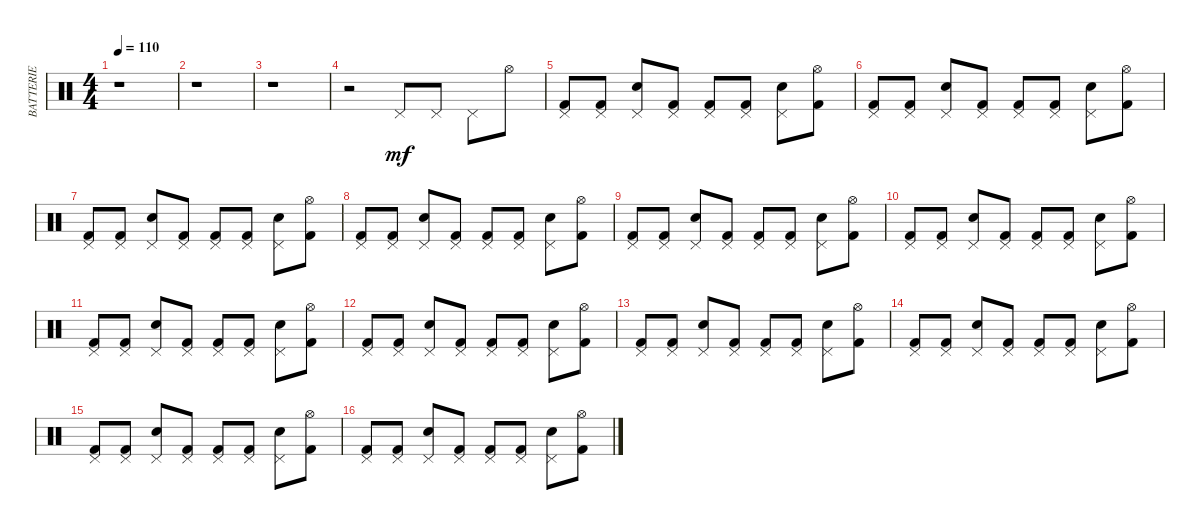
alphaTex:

\track ("BATTERIE" "BATTERIE") {instrument percussion}
\staff {score}
\articulation defaults
\ts (4 4)
\tempo 110
\clef neutral
\ks c
r.1{dy mf} |
r.1 |
r.1 |
r.2 "Pedal Hi-Hat (hit)".8 "Pedal Hi-Hat (hit)".8 "Pedal Hi-Hat (hit)".8 "Hi-Hat (open)".8 |
("Pedal Hi-Hat (hit)" "Kick (hit) 2").8 ("Pedal Hi-Hat (hit)" "Kick (hit) 2").8 ("Electric Snare (hit)" "Pedal Hi-Hat (hit)").8 ("Kick (hit) 2" "Pedal Hi-Hat (hit)").8 ("Pedal Hi-Hat (hit)" "Kick (hit) 2").8 ("Kick (hit) 2" "Pedal Hi-Hat (hit)").8 ("Electric Snare (hit)" "Pedal Hi-Hat (hit)").8 ("Kick (hit) 2" "Hi-Hat (open)").8 |
("Kick (hit) 2" "Pedal Hi-Hat (hit)").8 ("Kick (hit) 2" "Pedal Hi-Hat (hit)").8 ("Pedal Hi-Hat (hit)" "Electric Snare (hit)").8 ("Pedal Hi-Hat (hit)" "Kick (hit) 2").8 ("Kick (hit) 2" "Pedal Hi-Hat (hit)").8 ("Kick (hit) 2" "Pedal Hi-Hat (hit)").8 ("Pedal Hi-Hat (hit)" "Electric Snare (hit)").8 ("Kick (hit) 2" "Hi-Hat (open)").8 |
("Kick (hit) 2" "Pedal Hi-Hat (hit)").8 ("Kick (hit) 2" "Pedal Hi-Hat (hit)").8 ("Pedal Hi-Hat (hit)" "Electric Snare (hit)").8 ("Pedal Hi-Hat (hit)" "Kick (hit) 2").8 ("Kick (hit) 2" "Pedal Hi-Hat (hit)").8 ("Pedal Hi-Hat (hit)" "Kick (hit) 2").8 ("Pedal Hi-Hat (hit)" "Electric Snare (hit)").8 ("Hi-Hat (open)" "Kick (hit) 2").8 |
("Pedal Hi-Hat (hit)" "Kick (hit) 2").8 ("Pedal Hi-Hat (hit)" "Kick (hit) 2").8 ("Electric Snare (hit)" "Pedal Hi-Hat (hit)").8 ("Kick (hit) 2" "Pedal Hi-Hat (hit)").8 ("Pedal Hi-Hat (hit)" "Kick (hit) 2").8 ("Kick (hit) 2" "Pedal Hi-Hat (hit)").8 ("Electric Snare (hit)" "Pedal Hi-Hat (hit)").8 ("Kick (hit) 2" "Hi-Hat (open)").8 |
("Kick (hit) 2" "Pedal Hi-Hat (hit)").8 ("Kick (hit) 2" "Pedal Hi-Hat (hit)").8 ("Pedal Hi-Hat (hit)" "Electric Snare (hit)").8 ("Pedal Hi-Hat (hit)" "Kick (hit) 2").8 ("Kick (hit) 2" "Pedal Hi-Hat (hit)").8 ("Pedal Hi-Hat (hit)" "Kick (hit) 2").8 ("Pedal Hi-Hat (hit)" "Electric Snare (hit)").8 ("Hi-Hat (open)" "Kick (hit) 2").8 |
("Kick (hit) 2" "Pedal Hi-Hat (hit)").8 ("Kick (hit) 2" "Pedal Hi-Hat (hit)").8 ("Pedal Hi-Hat (hit)" "Electric Snare (hit)").8 ("Pedal Hi-Hat (hit)" "Kick (hit) 2").8 ("Kick (hit) 2" "Pedal Hi-Hat (hit)").8 ("Pedal Hi-Hat (hit)" "Kick (hit) 2").8 ("Pedal Hi-Hat (hit)" "Electric Snare (hit)").8 ("Hi-Hat (open)" "Kick (hit) 2").8 |
("Pedal Hi-Hat (hit)" "Kick (hit) 2").8 ("Pedal Hi-Hat (hit)" "Kick (hit) 2").8 ("Electric Snare (hit)" "Pedal Hi-Hat (hit)").8 ("Kick (hit) 2" "Pedal Hi-Hat (hit)").8 ("Pedal Hi-Hat (hit)" "Kick (hit) 2").8 ("Kick (hit) 2" "Pedal Hi-Hat (hit)").8 ("Electric Snare (hit)" "Pedal Hi-Hat (hit)").8 ("Kick (hit) 2" "Hi-Hat (open)").8 |
("Pedal Hi-Hat (hit)" "Kick (hit) 2").8 ("Pedal Hi-Hat (hit)" "Kick (hit) 2").8 ("Electric Snare (hit)" "Pedal Hi-Hat (hit)").8 ("Kick (hit) 2" "Pedal Hi-Hat (hit)").8 ("Pedal Hi-Hat (hit)" "Kick (hit) 2").8 ("Kick (hit) 2" "Pedal Hi-Hat (hit)").8 ("Electric Snare (hit)" "Pedal Hi-Hat (hit)").8 ("Kick (hit) 2" "Hi-Hat (open)").8 |
("Pedal Hi-Hat (hit)" "Kick (hit) 2").8 ("Pedal Hi-Hat (hit)" "Kick (hit) 2").8 ("Electric Snare (hit)" "Pedal Hi-Hat (hit)").8 ("Kick (hit) 2" "Pedal Hi-Hat (hit)").8 ("Pedal Hi-Hat (hit)" "Kick (hit) 2").8 ("Kick (hit) 2" "Pedal Hi-Hat (hit)").8 ("Pedal Hi-Hat (hit)" "Electric Snare (hit)").8 ("Hi-Hat (open)" "Kick (hit) 2").8 |
("Pedal Hi-Hat (hit)" "Kick (hit) 2").8 ("Pedal Hi-Hat (hit)" "Kick (hit) 2").8 ("Electric Snare (hit)" "Pedal Hi-Hat (hit)").8 ("Kick (hit) 2" "Pedal Hi-Hat (hit)").8 ("Kick (hit) 2" "Pedal Hi-Hat (hit)").8 ("Kick (hit) 2" "Pedal Hi-Hat (hit)").8 ("Electric Snare (hit)" "Pedal Hi-Hat (hit)").8 ("Kick (hit) 2" "Hi-Hat (open)").8 |
("Pedal Hi-Hat (hit)" "Kick (hit) 2").8 ("Pedal Hi-Hat (hit)" "Kick (hit) 2").8 ("Electric Snare (hit)" "Pedal Hi-Hat (hit)").8 ("Kick (hit) 2" "Pedal Hi-Hat (hit)").8 ("Pedal Hi-Hat (hit)" "Kick (hit) 2").8 ("Kick (hit) 2" "Pedal Hi-Hat (hit)").8 ("Electric Snare (hit)" "Pedal Hi-Hat (hit)").8 ("Kick (hit) 2" "Hi-Hat (open)").8 |
("Pedal Hi-Hat (hit)" "Kick (hit) 2").8 ("Pedal Hi-Hat (hit)" "Kick (hit) 2").8 ("Electric Snare (hit)" "Pedal Hi-Hat (hit)").8 ("Pedal Hi-Hat (hit)" "Kick (hit) 2").8 ("Pedal Hi-Hat (hit)" "Kick (hit) 2").8 ("Kick (hit) 2" "Pedal Hi-Hat (hit)").8 ("Pedal Hi-Hat (hit)" "Electric Snare (hit)").8 ("Kick (hit) 2" "Hi-Hat (open)").8
